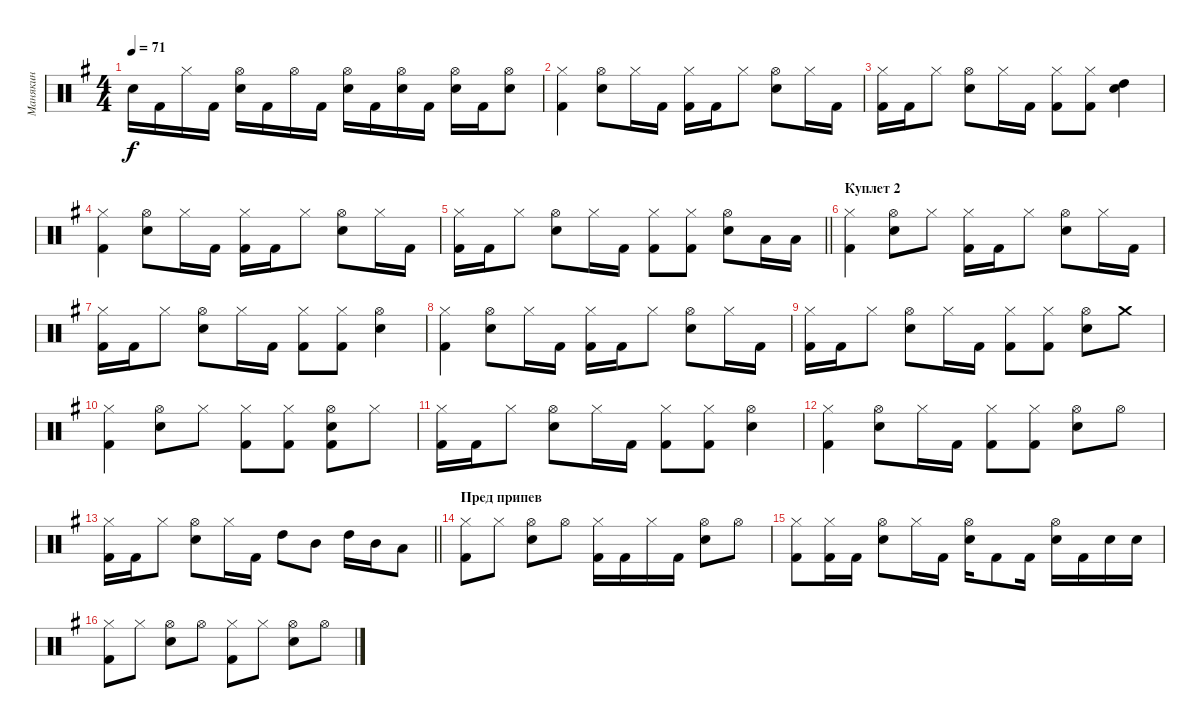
\track ("Манякин" "Манякин") {instrument percussion}
\staff {score}
\articulation defaults
\ts (4 4)
\tempo 71
\clef neutral
\ks eminor "Snare (hit) 2".16{dy f} "Kick (hit) 2".16 "Hi-Hat (closed)".16 "Kick (hit) 2".16
("Hi-Hat (open)" "Snare (hit) 2").16 "Kick (hit) 2".16 "Hi-Hat (open)".16 "Kick (hit) 2".16 ("Hi-Hat (open)" "Snare (hit) 2").16 "Kick (hit) 2".16 ("Hi-Hat (open)" "Snare (hit) 2").16 "Kick (hit) 2".16 ("Hi-Hat (open)" "Snare (hit) 2").16 "Kick (hit) 2".16 ("Hi-Hat (open)" "Snare (hit) 2").8 |
("Hi-Hat (closed)" "Kick (hit) 2").4 ("Hi-Hat (open)" "Snare (hit) 2").8 "Hi-Hat (closed)".16 "Kick (hit) 2".16 ("Hi-Hat (closed)" "Kick (hit) 2").16 "Kick (hit) 2".16 "Hi-Hat (closed)".8 ("Hi-Hat (open)" "Snare (hit) 2").8 "Hi-Hat (closed)".16 "Kick (hit) 2".16 |
("Hi-Hat (closed)" "Kick (hit) 2").16 "Kick (hit) 2".16 "Hi-Hat (closed)".8 ("Hi-Hat (open)" "Snare (hit) 2").8 "Hi-Hat (closed)".16 "Kick (hit) 2".16 ("Hi-Hat (closed)" "Kick (hit) 2").8 ("Hi-Hat (closed)" "Kick (hit) 2").8 ("High Tom (hit)" "Snare (hit) 2").4 |
("Hi-Hat (closed)" "Kick (hit) 2").4 ("Hi-Hat (open)" "Snare (hit) 2").8 "Hi-Hat (closed)".16 "Kick (hit) 2".16 ("Hi-Hat (closed)" "Kick (hit) 2").16 "Kick (hit) 2".16 "Hi-Hat (closed)".8 ("Hi-Hat (open)" "Snare (hit) 2").8 "Hi-Hat (closed)".16 "Kick (hit) 2".16 |
\barLineRight lightlight
("Hi-Hat (closed)" "Kick (hit) 2").16 "Kick (hit) 2".16 "Hi-Hat (closed)".8 ("Hi-Hat (open)" "Snare (hit) 2").8 "Hi-Hat (closed)".16 "Kick (hit) 2".16 ("Hi-Hat (closed)" "Kick (hit) 2").8 ("Hi-Hat (closed)" "Kick (hit) 2").8 ("Hi-Hat (open)" "Snare (hit) 2").8 "Low Tom (hit)".16 "Low Tom (hit)".16 |
\section ("" "Куплет 2")
("Hi-Hat (closed)" "Kick (hit) 2").4 ("Hi-Hat (open)" "Snare (hit) 2").8 "Hi-Hat (closed)".8 ("Hi-Hat (closed)" "Kick (hit) 2").16 "Kick (hit) 2".16 "Hi-Hat (closed)".8 ("Hi-Hat (open)" "Snare (hit) 2").8 "Hi-Hat (closed)".16 "Kick (hit) 2".16 |
("Hi-Hat (closed)" "Kick (hit) 2").16 "Kick (hit) 2".16 "Hi-Hat (closed)".8 ("Hi-Hat (open)" "Snare (hit) 2").8 "Hi-Hat (closed)".16 "Kick (hit) 2".16 ("Hi-Hat (closed)" "Kick (hit) 2").8 ("Hi-Hat (closed)" "Kick (hit) 2").8 ("Hi-Hat (open)" "Snare (hit) 2").4 |
("Hi-Hat (closed)" "Kick (hit) 2").4 ("Hi-Hat (open)" "Snare (hit) 2").8 "Hi-Hat (closed)".16 "Kick (hit) 2".16 ("Hi-Hat (closed)" "Kick (hit) 2").16 "Kick (hit) 2".16 "Hi-Hat (closed)".8 ("Hi-Hat (open)" "Snare (hit) 2").8 "Hi-Hat (closed)".16 "Kick (hit) 2".16 |
("Hi-Hat (closed)" "Kick (hit) 2").16 "Kick (hit) 2".16 "Hi-Hat (closed)".8 ("Hi-Hat (open)" "Snare (hit) 2").8 "Hi-Hat (closed)".16 "Kick (hit) 2".16 ("Hi-Hat (closed)" "Kick (hit) 2").8 ("Hi-Hat (closed)" "Kick (hit) 2").8 ("Hi-Hat (open)" "Snare (hit) 2").8 "Crash medium (hit)".8 |
("Hi-Hat (closed)" "Kick (hit) 2").4 ("Hi-Hat (open)" "Snare (hit) 2").8 "Hi-Hat (closed)".8 ("Hi-Hat (closed)" "Kick (hit) 2").8 ("Hi-Hat (closed)" "Kick (hit) 2").8 ("Hi-Hat (open)" "Snare (hit) 2" "Kick (hit) 2").8 "Hi-Hat (closed)".8 |
("Hi-Hat (closed)" "Kick (hit) 2").16 "Kick (hit) 2".16 "Hi-Hat (closed)".8 ("Hi-Hat (open)" "Snare (hit) 2").8 "Hi-Hat (closed)".16 "Kick (hit) 2".16 ("Hi-Hat (closed)" "Kick (hit) 2").8 ("Hi-Hat (closed)" "Kick (hit) 2").8 ("Hi-Hat (open)" "Snare (hit) 2").4 |
("Hi-Hat (closed)" "Kick (hit) 2").4 ("Hi-Hat (open)" "Snare (hit) 2").8 "Hi-Hat (closed)".16 "Kick (hit) 2".16 ("Hi-Hat (closed)" "Kick (hit) 2").8 ("Hi-Hat (closed)" "Kick (hit) 2").8 ("Hi-Hat (open)" "Snare (hit) 2").8 "Hi-Hat (open)".8 |
\barLineRight lightlight
("Hi-Hat (closed)" "Kick (hit) 2").16 "Kick (hit) 2".16 "Hi-Hat (closed)".8 ("Hi-Hat (open)" "Snare (hit) 2").8 "Hi-Hat (closed)".16 "Kick (hit) 2".16 "High Tom (hit)".8 "Mid Tom (hit)".8 "High Tom (hit)".16 "Mid Tom (hit)".16 "Low Tom (hit)".8 |
\section ("" "Пред припев")
("Hi-Hat (closed)" "Kick (hit) 2").8 "Hi-Hat (closed)".8 ("Hi-Hat (open)" "Snare (hit) 2").8 "Hi-Hat (open)".8 ("Hi-Hat (closed)" "Kick (hit) 2").16 "Kick (hit) 2".16 "Hi-Hat (closed)".16 "Kick (hit) 2".16 ("Hi-Hat (open)" "Snare (hit) 2").8 "Hi-Hat (open)".8 |
("Hi-Hat (closed)" "Kick (hit) 2").8 ("Hi-Hat (closed)" "Kick (hit) 2").16 "Kick (hit) 2".16 ("Hi-Hat (open)" "Snare (hit) 2").8 "Hi-Hat (closed)".16 "Kick (hit) 2".16 ("Hi-Hat (open)" "Snare (hit) 2").16 "Kick (hit) 2".8 "Kick (hit) 2".16 ("Hi-Hat (open)" "Snare (hit) 2").16 "Kick (hit) 2".16 "Snare (hit) 2".16 "Snare (hit) 2".16 |
("Hi-Hat (closed)" "Kick (hit) 2").8 "Hi-Hat (closed)".8 ("Hi-Hat (open)" "Snare (hit) 2").8 "Hi-Hat (open)".8 ("Hi-Hat (closed)" "Kick (hit) 2").8 "Hi-Hat (closed)".8 ("Hi-Hat (open)" "Snare (hit) 2").8 "Hi-Hat (open)".8
